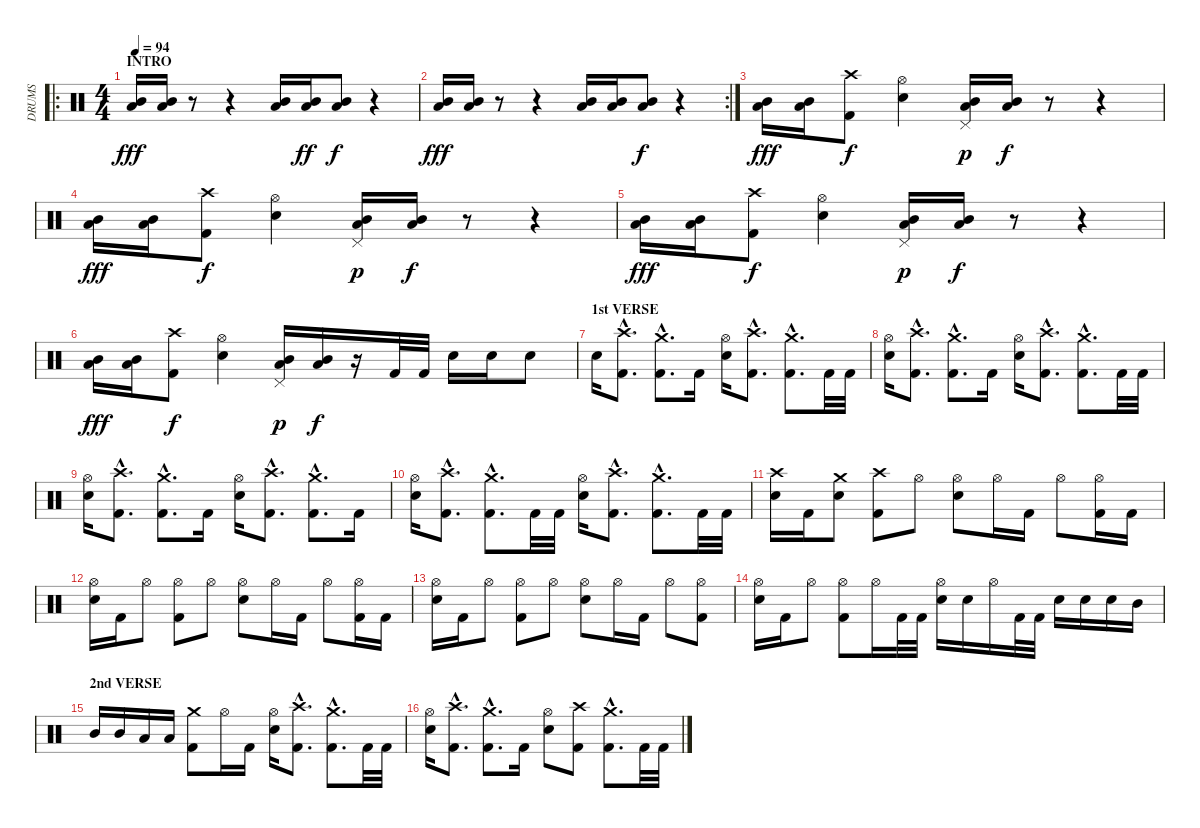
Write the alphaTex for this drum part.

\track ("DRUMS" "DRUMS") {instrument percussion}
\staff {score}
\articulation defaults
\ro
\ts (4 4)
\section ("" "INTRO")
\tempo 94
\clef neutral
\ks c
("Mid Tom (hit)" "Low Tom (hit)").16{dy fff} ("Mid Tom (hit)" "Low Tom (hit)").16 r.8 r.4 ("Mid Tom (hit)" "Low Tom (hit)").16 ("Mid Tom (hit)" "Low Tom (hit)").16{dy ff} ("Mid Tom (hit)" "Low Tom (hit)").8{dy f} r.4 |
\rc 2
("Mid Tom (hit)" "Low Tom (hit)").16{dy fff} ("Mid Tom (hit)" "Low Tom (hit)").16 r.8 r.4 ("Mid Tom (hit)" "Low Tom (hit)").16 ("Mid Tom (hit)" "Low Tom (hit)").16 ("Mid Tom (hit)" "Low Tom (hit)").8{dy f} r.4 |
("Mid Tom (hit)" "Low Tom (hit)").16{dy fff} ("Mid Tom (hit)" "Low Tom (hit)").16 ("Crash high (hit)" "Kick (hit) 2").8{dy f} ("Hi-Hat (open)" "Electric Snare (hit)").4 ("Mid Tom (hit)" "Low Tom (hit)" "Pedal Hi-Hat (hit)").16{dy p} ("Mid Tom (hit)" "Low Tom (hit)").16{dy f} r.8 r.4 |
("Mid Tom (hit)" "Low Tom (hit)").16{dy fff} ("Mid Tom (hit)" "Low Tom (hit)").16 ("Crash high (hit)" "Kick (hit) 2").8{dy f} ("Hi-Hat (open)" "Electric Snare (hit)").4 ("Mid Tom (hit)" "Low Tom (hit)" "Pedal Hi-Hat (hit)").16{dy p} ("Mid Tom (hit)" "Low Tom (hit)").16{dy f} r.8 r.4 |
("Mid Tom (hit)" "Low Tom (hit)").16{dy fff} ("Mid Tom (hit)" "Low Tom (hit)").16 ("Crash high (hit)" "Kick (hit) 2").8{dy f} ("Hi-Hat (open)" "Electric Snare (hit)").4 ("Mid Tom (hit)" "Low Tom (hit)" "Pedal Hi-Hat (hit)").16{dy p} ("Mid Tom (hit)" "Low Tom (hit)").16{dy f} r.8 r.4 |
("Mid Tom (hit)" "Low Tom (hit)").16{dy fff} ("Mid Tom (hit)" "Low Tom (hit)").16 ("Crash high (hit)" "Kick (hit) 2").8{dy f} ("Hi-Hat (open)" "Electric Snare (hit)").4 ("Mid Tom (hit)" "Low Tom (hit)" "Pedal Hi-Hat (hit)").16{dy p} ("Mid Tom (hit)" "Low Tom (hit)").16{dy f} r.16 "Kick (hit) 2".32 "Kick (hit) 2".32 "Electric Snare (hit)".16 "Electric Snare (hit)".16 "Electric Snare (hit)".8 |
\section ("" "1st VERSE")
"Electric Snare (hit)".16 ("Crash high (hit)"{hac} "Kick (hit) 2"{hac}).8{d} ("Crash medium (hit)"{hac} "Kick (hit) 2"{hac}).8{d} "Kick (hit) 2".16 ("Hi-Hat (open)" "Electric Snare (hit)").16 ("Crash high (hit)"{hac} "Kick (hit) 2"{hac}).8{d} ("Crash medium (hit)"{hac} "Kick (hit) 2"{hac}).8{d} "Kick (hit) 2".32 "Kick (hit) 2".32 |
("Hi-Hat (open)" "Electric Snare (hit)").16 ("Crash high (hit)"{hac} "Kick (hit) 2"{hac}).8{d} ("Crash medium (hit)"{hac} "Kick (hit) 2"{hac}).8{d} "Kick (hit) 2".16 ("Hi-Hat (open)" "Electric Snare (hit)").16 ("Crash high (hit)"{hac} "Kick (hit) 2"{hac}).8{d} ("Crash medium (hit)"{hac} "Kick (hit) 2"{hac}).8{d} "Kick (hit) 2".32 "Kick (hit) 2".32 |
("Hi-Hat (open)" "Electric Snare (hit)").16 ("Crash high (hit)"{hac} "Kick (hit) 2"{hac}).8{d} ("Crash medium (hit)"{hac} "Kick (hit) 2"{hac}).8{d} "Kick (hit) 2".16 ("Hi-Hat (open)" "Electric Snare (hit)").16 ("Crash high (hit)"{hac} "Kick (hit) 2"{hac}).8{d} ("Crash medium (hit)"{hac} "Kick (hit) 2"{hac}).8{d} "Kick (hit) 2".16 |
("Hi-Hat (open)" "Electric Snare (hit)").16 ("Crash high (hit)"{hac} "Kick (hit) 2"{hac}).8{d} ("Crash medium (hit)"{hac} "Kick (hit) 2"{hac}).8{d} "Kick (hit) 2".32 "Kick (hit) 2".32 ("Hi-Hat (open)" "Electric Snare (hit)").16 ("Crash high (hit)"{hac} "Kick (hit) 2"{hac}).8{d} ("Crash medium (hit)"{hac} "Kick (hit) 2"{hac}).8{d} "Kick (hit) 2".32 "Kick (hit) 2".32 |
("Crash high (hit)" "Electric Snare (hit)").16 "Kick (hit) 2".16 ("Crash medium (hit)" "Electric Snare (hit)").8 ("Crash high (hit)" "Kick (hit) 2").8 "Hi-Hat (open)".8 ("Hi-Hat (open)" "Electric Snare (hit)").8 "Hi-Hat (open)".16 "Kick (hit) 2".16 "Hi-Hat (open)".8 ("Hi-Hat (open)" "Kick (hit) 2").16 "Kick (hit) 2".16 |
("Hi-Hat (open)" "Electric Snare (hit)").16 "Kick (hit) 2".16 "Hi-Hat (open)".8 ("Hi-Hat (open)" "Kick (hit) 2").8 "Hi-Hat (open)".8 ("Hi-Hat (open)" "Electric Snare (hit)").8 "Hi-Hat (open)".16 "Kick (hit) 2".16 "Hi-Hat (open)".8 ("Hi-Hat (open)" "Kick (hit) 2").16 "Kick (hit) 2".16 |
("Hi-Hat (open)" "Electric Snare (hit)").16 "Kick (hit) 2".16 "Hi-Hat (open)".8 ("Hi-Hat (open)" "Kick (hit) 2").8 "Hi-Hat (open)".8 ("Hi-Hat (open)" "Electric Snare (hit)").8 "Hi-Hat (open)".16 "Kick (hit) 2".16 "Hi-Hat (open)".8 ("Hi-Hat (open)" "Kick (hit) 2").8 |
("Hi-Hat (open)" "Electric Snare (hit)").16 "Kick (hit) 2".16 "Hi-Hat (open)".8 ("Hi-Hat (open)" "Kick (hit) 2").8 "Hi-Hat (open)".16 "Kick (hit) 2".32 "Kick (hit) 2".32 ("Hi-Hat (open)" "Electric Snare (hit)").16 "Electric Snare (hit)".16 "Hi-Hat (open)".16 "Kick (hit) 2".32 "Kick (hit) 2".32 "Electric Snare (hit)".16 "Electric Snare (hit)".16 "Electric Snare (hit)".16 "Mid Tom (hit)".16 |
\section ("" "2nd VERSE")
"Mid Tom (hit)".16 "Mid Tom (hit)".16 "Low Tom (hit)".16 "Low Tom (hit)".16 ("Crash medium (hit)" "Kick (hit) 2").8 "Hi-Hat (open)".16 "Kick (hit) 2".16 ("Hi-Hat (open)" "Electric Snare (hit)").16 ("Crash high (hit)"{hac} "Kick (hit) 2"{hac}).8{d} ("Crash medium (hit)"{hac} "Kick (hit) 2"{hac}).8{d} "Kick (hit) 2".32 "Kick (hit) 2".32 |
("Hi-Hat (open)" "Electric Snare (hit)").16 ("Crash high (hit)"{hac} "Kick (hit) 2"{hac}).8{d} ("Crash medium (hit)"{hac} "Kick (hit) 2"{hac}).8{d} "Kick (hit) 2".16 ("Hi-Hat (open)" "Electric Snare (hit)").8 ("Crash high (hit)" "Kick (hit) 2").8 ("Crash medium (hit)"{hac} "Kick (hit) 2"{hac}).8{d} "Kick (hit) 2".32 "Kick (hit) 2".32
